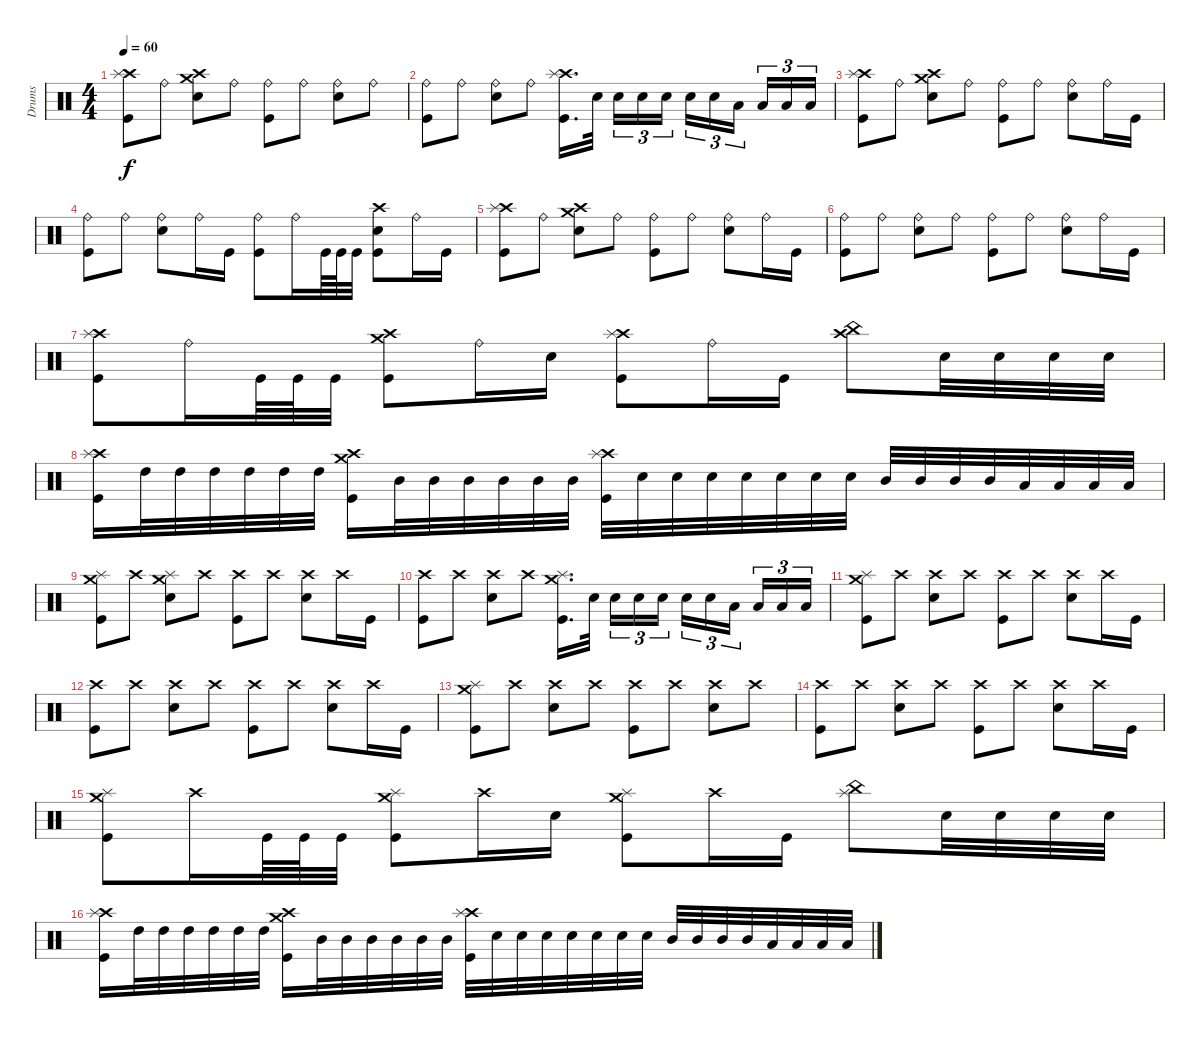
\track ("Drums" "Drums") {instrument percussion}
\staff {score}
\articulation defaults
\ts (4 4)
\tempo 60
\clef neutral
\ks c
("Crash high (hit)" "Splash (hit)" "Kick (hit)").8{dy f} "Ride (bell)".8 ("Crash high (hit)" "Crash medium (hit)" "Electric Snare (hit)").8 "Ride (bell)".8 ("Ride (bell)" "Kick (hit)").8 "Ride (bell)".8 ("Ride (bell)" "Electric Snare (hit)").8 "Ride (bell)".8 |
("Ride (bell)" "Kick (hit)").8 "Ride (bell)".8 ("Ride (bell)" "Electric Snare (hit)").8 "Ride (bell)".8 ("Crash high (hit)" "Splash (hit)" "Kick (hit)").16{d} "Electric Snare (hit)".32{beam splitsecondary} "Electric Snare (hit)".16{tu (3 2)} "Electric Snare (hit)".16{tu (3 2)} "Electric Snare (hit)".16{tu (3 2)} "Electric Snare (hit)".16{tu (3 2)} "Electric Snare (hit)".16{tu (3 2)} "Low Tom (hit)".16{tu (3 2) beam splitsecondary} "Low Tom (hit)".16{tu (3 2)} "Low Tom (hit)".16{tu (3 2)} "Low Tom (hit)".16{tu (3 2)} |
("Crash high (hit)" "Splash (hit)" "Kick (hit)").8 "Ride (bell)".8 ("Crash high (hit)" "Crash medium (hit)" "Electric Snare (hit)").8 "Ride (bell)".8 ("Ride (bell)" "Kick (hit)").8 "Ride (bell)".8 ("Ride (bell)" "Electric Snare (hit)").8 "Ride (bell)".16 "Kick (hit)".16 |
("Ride (bell)" "Kick (hit)").8 "Ride (bell)".8 ("Ride (bell)" "Electric Snare (hit)").8 "Ride (bell)".16 "Kick (hit)".16 ("Ride (bell)" "Kick (hit)").8 "Ride (bell)".16 "Kick (hit)".64 "Kick (hit)".64 "Kick (hit)".32 ("Crash high (hit)" "Electric Snare (hit)" "Kick (hit)").8 "Ride (bell)".16 "Kick (hit)".16 |
("Crash high (hit)" "Splash (hit)" "Kick (hit)").8 "Ride (bell)".8 ("Crash high (hit)" "Crash medium (hit)" "Electric Snare (hit)").8 "Ride (bell)".8 ("Ride (bell)" "Kick (hit)").8 "Ride (bell)".8 ("Ride (bell)" "Electric Snare (hit)").8 "Ride (bell)".16 "Kick (hit)".16 |
("Ride (bell)" "Kick (hit)").8 "Ride (bell)".8 ("Ride (bell)" "Electric Snare (hit)").8 "Ride (bell)".8 ("Ride (bell)" "Kick (hit)").8 "Ride (bell)".8 ("Ride (bell)" "Electric Snare (hit)").8 "Ride (bell)".16 "Kick (hit)".16 |
("Crash high (hit)" "Splash (hit)" "Kick (hit)").8 "Ride (bell)".16 "Kick (hit)".64 "Kick (hit)".64 "Kick (hit)".32 ("Crash high (hit)" "Crash medium (hit)" "Kick (hit)").8 "Ride (bell)".16 "Electric Snare (hit)".16 ("Crash high (hit)" "Splash (hit)" "Kick (hit)").8 "Ride (bell)".16 "Kick (hit)".16 ("Crash high (hit)" "China (hit)").8 "Electric Snare (hit)".32 "Electric Snare (hit)".32 "Electric Snare (hit)".32 "Electric Snare (hit)".32 |
("Crash high (hit)" "Splash (hit)" "Kick (hit)").16 "High Tom (hit)".32 "High Tom (hit)".32 "High Tom (hit)".32 "High Tom (hit)".32 "High Tom (hit)".32 "High Tom (hit)".32 ("Crash high (hit)" "Crash medium (hit)" "Kick (hit)").16 "Mid Tom (hit)".32 "Mid Tom (hit)".32 "Mid Tom (hit)".32 "Mid Tom (hit)".32 "Mid Tom (hit)".32 "Mid Tom (hit)".32 ("Crash high (hit)" "Splash (hit)" "Kick (hit)").32 "Electric Snare (hit)".32 "Electric Snare (hit)".32 "Electric Snare (hit)".32 "Electric Snare (hit)".32 "Electric Snare (hit)".32 "Electric Snare (hit)".32 "Electric Snare (hit)".32 "Mid Tom (hit)".32 "Mid Tom (hit)".32 "Mid Tom (hit)".32 "Mid Tom (hit)".32 "Low Tom (hit)".32 "Low Tom (hit)".32 "Low Tom (hit)".32 "Low Tom (hit)".32 |
("Crash medium (hit)" "Splash (hit)" "Kick (hit)").8 "Crash high (hit)".8 ("Splash (hit)" "Crash medium (hit)" "Electric Snare (hit)").8 "Crash high (hit)".8 ("Crash high (hit)" "Kick (hit)").8 "Crash high (hit)".8 ("Crash high (hit)" "Electric Snare (hit)").8 "Crash high (hit)".16 "Kick (hit)".16 |
("Crash high (hit)" "Kick (hit)").8 "Crash high (hit)".8 ("Crash high (hit)" "Electric Snare (hit)").8 "Crash high (hit)".8 ("Crash medium (hit)" "Splash (hit)" "Kick (hit)").16{d} "Electric Snare (hit)".32{beam splitsecondary} "Electric Snare (hit)".16{tu (3 2)} "Electric Snare (hit)".16{tu (3 2)} "Electric Snare (hit)".16{tu (3 2)} "Electric Snare (hit)".16{tu (3 2)} "Electric Snare (hit)".16{tu (3 2)} "Low Tom (hit)".16{tu (3 2) beam splitsecondary} "Low Tom (hit)".16{tu (3 2)} "Low Tom (hit)".16{tu (3 2)} "Low Tom (hit)".16{tu (3 2)} |
("Splash (hit)" "Crash medium (hit)" "Kick (hit)").8 "Crash high (hit)".8 ("Crash high (hit)" "Electric Snare (hit)").8 "Crash high (hit)".8 ("Crash high (hit)" "Kick (hit)").8 "Crash high (hit)".8 ("Crash high (hit)" "Electric Snare (hit)").8 "Crash high (hit)".16 "Kick (hit)".16 |
("Crash high (hit)" "Kick (hit)").8 "Crash high (hit)".8 ("Crash high (hit)" "Electric Snare (hit)").8 "Crash high (hit)".8 ("Crash high (hit)" "Kick (hit)").8 "Crash high (hit)".8 ("Crash high (hit)" "Electric Snare (hit)").8 "Crash high (hit)".16 "Kick (hit)".16 |
("Crash medium (hit)" "Splash (hit)" "Kick (hit)").8 "Crash high (hit)".8 ("Crash high (hit)" "Electric Snare (hit)").8 "Crash high (hit)".8 ("Crash high (hit)" "Kick (hit)").8 "Crash high (hit)".8 ("Crash high (hit)" "Electric Snare (hit)").8 "Crash high (hit)".8 |
("Crash high (hit)" "Kick (hit)").8 "Crash high (hit)".8 ("Crash high (hit)" "Electric Snare (hit)").8 "Crash high (hit)".8 ("Crash high (hit)" "Kick (hit)").8 "Crash high (hit)".8 ("Crash high (hit)" "Electric Snare (hit)").8 "Crash high (hit)".16 "Kick (hit)".16 |
("Crash medium (hit)" "Splash (hit)" "Kick (hit)").8 "Crash high (hit)".16 "Kick (hit)".64 "Kick (hit)".64 "Kick (hit)".32 ("Splash (hit)" "Crash medium (hit)" "Kick (hit)").8 "Crash high (hit)".16 "Electric Snare (hit)".16 ("Crash medium (hit)" "Splash (hit)" "Kick (hit)").8 "Crash high (hit)".16 "Kick (hit)".16 ("Splash (hit)" "China (hit)").8 "Electric Snare (hit)".32 "Electric Snare (hit)".32 "Electric Snare (hit)".32 "Electric Snare (hit)".32 |
("Crash high (hit)" "Splash (hit)" "Kick (hit)").16 "High Tom (hit)".32 "High Tom (hit)".32 "High Tom (hit)".32 "High Tom (hit)".32 "High Tom (hit)".32 "High Tom (hit)".32 ("Crash high (hit)" "Crash medium (hit)" "Kick (hit)").16 "Mid Tom (hit)".32 "Mid Tom (hit)".32 "Mid Tom (hit)".32 "Mid Tom (hit)".32 "Mid Tom (hit)".32 "Mid Tom (hit)".32 ("Crash high (hit)" "Splash (hit)" "Kick (hit)").32 "Electric Snare (hit)".32 "Electric Snare (hit)".32 "Electric Snare (hit)".32 "Electric Snare (hit)".32 "Electric Snare (hit)".32 "Electric Snare (hit)".32 "Electric Snare (hit)".32 "Mid Tom (hit)".32 "Mid Tom (hit)".32 "Mid Tom (hit)".32 "Mid Tom (hit)".32 "Low Tom (hit)".32 "Low Tom (hit)".32 "Low Tom (hit)".32 "Low Tom (hit)".32
